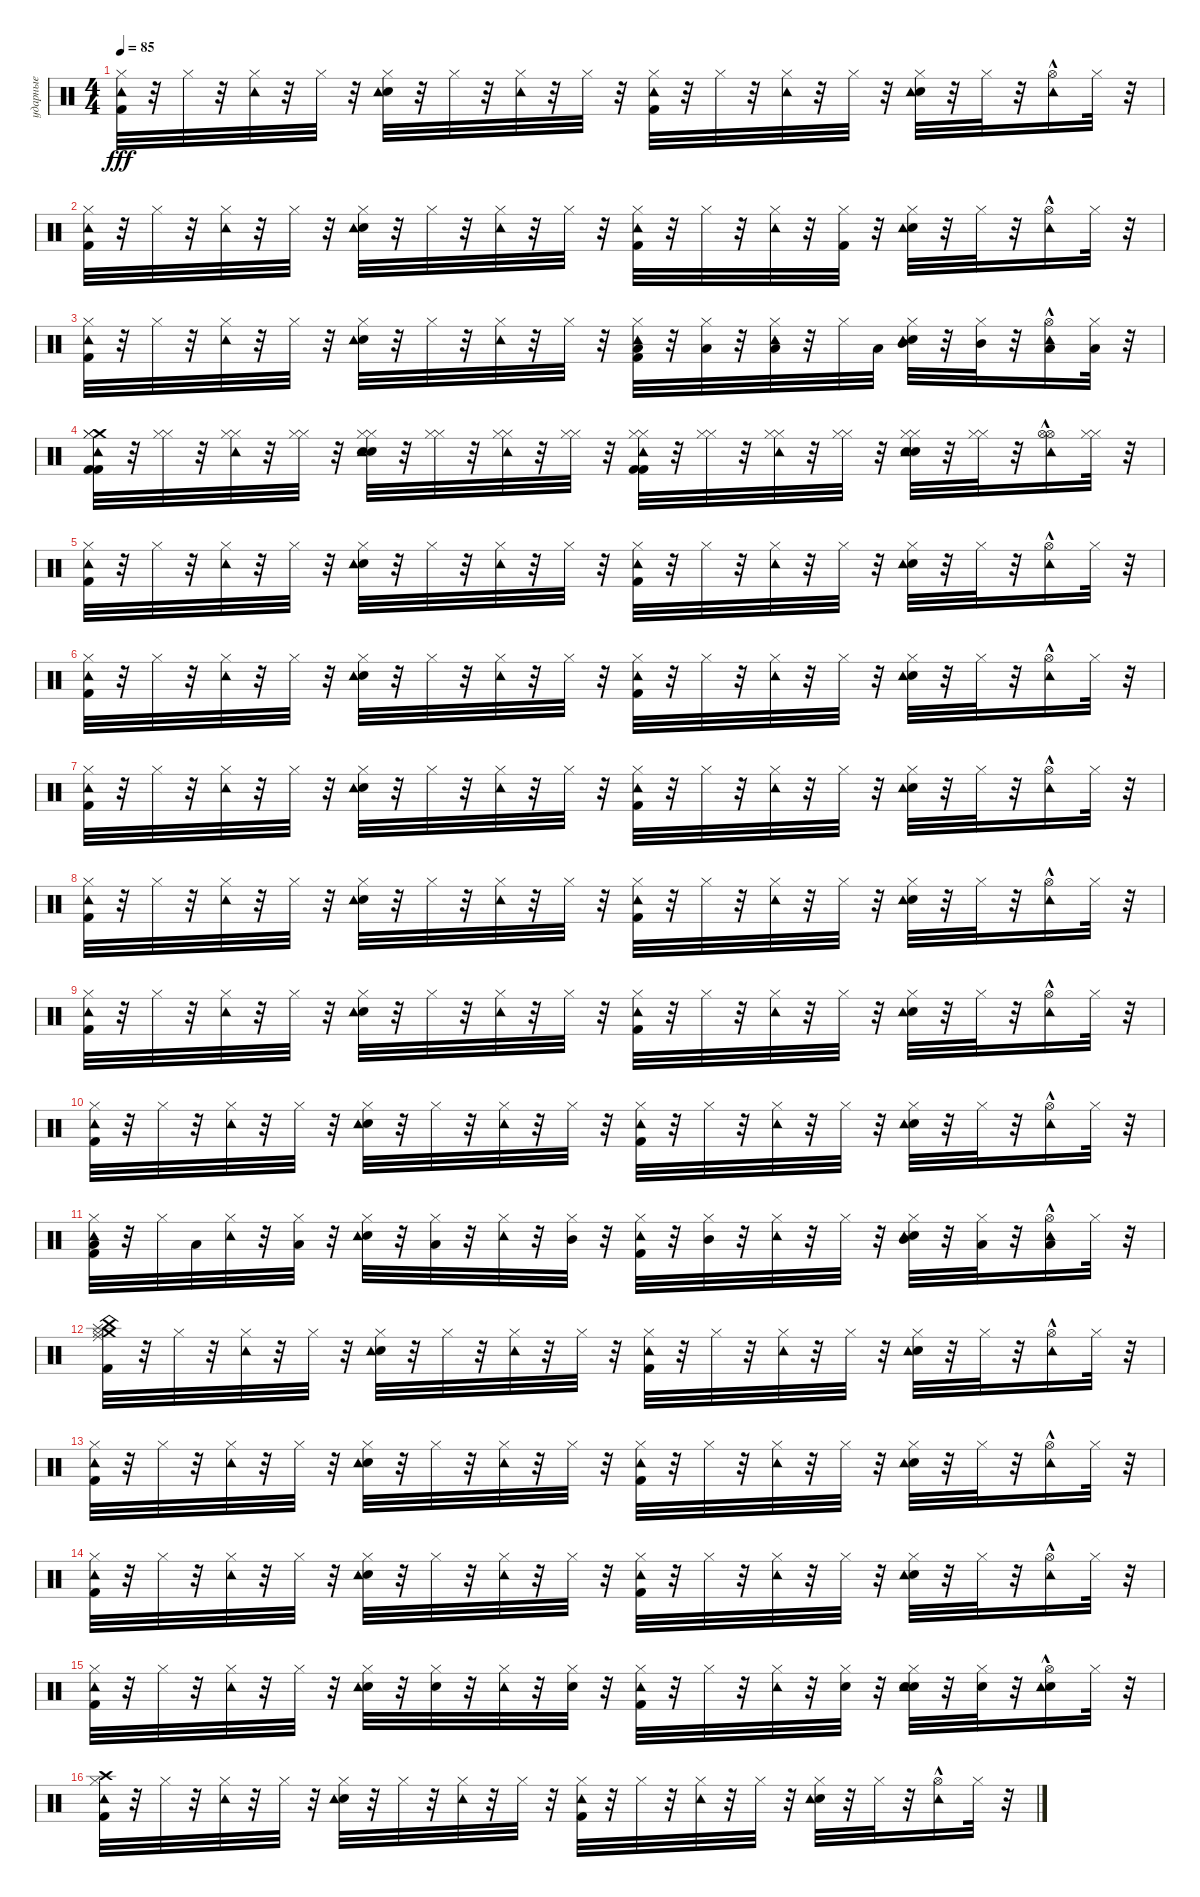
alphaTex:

\track ("ударные" "ударные") {instrument percussion}
\staff {score}
\articulation defaults
\ts (4 4)
\tempo 85
\clef neutral
\ks c
("Kick (hit) 2" "Hi-Hat (closed)" "Tambourine (hit)").32{dy fff} r.32 "Hi-Hat (closed)".32 r.32 ("Hi-Hat (closed)" "Tambourine (hit)").32 r.32 "Hi-Hat (closed)".32 r.32 ("Hi-Hat (closed)" "Electric Snare (hit)" "Tambourine (hit)").32 r.32 "Hi-Hat (closed)".32 r.32 ("Hi-Hat (closed)" "Tambourine (hit)").32 r.32 "Hi-Hat (closed)".32 r.32 ("Hi-Hat (closed)" "Kick (hit) 2" "Tambourine (hit)").32 r.32 "Hi-Hat (closed)".32 r.32 ("Hi-Hat (closed)" "Tambourine (hit)").32 r.32 "Hi-Hat (closed)".32 r.32 ("Hi-Hat (closed)" "Electric Snare (hit)" "Tambourine (hit)").32 r.32 "Hi-Hat (closed)".32 r.32 ("Hi-Hat (open)"{hac} "Tambourine (hit)").16 "Hi-Hat (closed)".32 r.32 |
("Kick (hit) 2" "Hi-Hat (closed)" "Tambourine (hit)").32 r.32 "Hi-Hat (closed)".32 r.32 ("Hi-Hat (closed)" "Tambourine (hit)").32 r.32 "Hi-Hat (closed)".32 r.32 ("Hi-Hat (closed)" "Electric Snare (hit)" "Tambourine (hit)").32 r.32 "Hi-Hat (closed)".32 r.32 ("Hi-Hat (closed)" "Tambourine (hit)").32 r.32 "Hi-Hat (closed)".32 r.32 ("Hi-Hat (closed)" "Kick (hit) 2" "Tambourine (hit)").32 r.32 "Hi-Hat (closed)".32 r.32 ("Hi-Hat (closed)" "Tambourine (hit)").32 r.32 ("Kick (hit) 2" "Hi-Hat (closed)").32 r.32 ("Hi-Hat (closed)" "Electric Snare (hit)" "Tambourine (hit)").32 r.32 "Hi-Hat (closed)".32 r.32 ("Hi-Hat (open)"{hac} "Tambourine (hit)").16 "Hi-Hat (closed)".32 r.32 |
("Kick (hit) 2" "Hi-Hat (closed)" "Tambourine (hit)").32 r.32 "Hi-Hat (closed)".32 r.32 ("Hi-Hat (closed)" "Tambourine (hit)").32 r.32 "Hi-Hat (closed)".32 r.32 ("Hi-Hat (closed)" "Electric Snare (hit)" "Tambourine (hit)").32 r.32 "Hi-Hat (closed)".32 r.32 ("Hi-Hat (closed)" "Tambourine (hit)").32 r.32 "Hi-Hat (closed)".32 r.32 ("Low Tom (hit)" "Hi-Hat (closed)" "Kick (hit) 2" "Tambourine (hit)").32 r.32 ("Low Tom (hit)" "Hi-Hat (closed)").32 r.32 ("Low Tom (hit)" "Hi-Hat (closed)" "Tambourine (hit)").32 r.32 "Hi-Hat (closed)".32 "Low Tom (hit)".32 ("Mid Tom (hit)" "Hi-Hat (closed)" "Electric Snare (hit)" "Tambourine (hit)").32 r.32 ("Mid Tom (hit)" "Hi-Hat (closed)").32 r.32 ("Low Tom (hit)" "Hi-Hat (open)"{hac} "Tambourine (hit)").16 ("Low Tom (hit)" "Hi-Hat (closed)").32 r.32 |
("Crash medium (hit)" "Kick (hit) 2" "Hi-Hat (closed)" "Kick (hit) 2" "Hi-Hat (closed)" "Tambourine (hit)").32 r.32 ("Hi-Hat (closed)" "Hi-Hat (closed)").32 r.32 ("Hi-Hat (closed)" "Hi-Hat (closed)" "Tambourine (hit)").32 r.32 ("Hi-Hat (closed)" "Hi-Hat (closed)").32 r.32 ("Hi-Hat (closed)" "Electric Snare (hit)" "Hi-Hat (closed)" "Electric Snare (hit)" "Tambourine (hit)").32 r.32 ("Hi-Hat (closed)" "Hi-Hat (closed)").32 r.32 ("Hi-Hat (closed)" "Hi-Hat (closed)" "Tambourine (hit)").32 r.32 ("Hi-Hat (closed)" "Hi-Hat (closed)").32 r.32 ("Hi-Hat (closed)" "Kick (hit) 2" "Hi-Hat (closed)" "Kick (hit) 2" "Tambourine (hit)").32 r.32 ("Hi-Hat (closed)" "Hi-Hat (closed)").32 r.32 ("Hi-Hat (closed)" "Hi-Hat (closed)" "Tambourine (hit)").32 r.32 ("Hi-Hat (closed)" "Hi-Hat (closed)").32 r.32 ("Hi-Hat (closed)" "Electric Snare (hit)" "Hi-Hat (closed)" "Electric Snare (hit)" "Tambourine (hit)").32 r.32 ("Hi-Hat (closed)" "Hi-Hat (closed)").32 r.32 ("Hi-Hat (open)"{hac} "Hi-Hat (open)"{hac} "Tambourine (hit)").16 ("Hi-Hat (closed)" "Hi-Hat (closed)").32 r.32 |
("Kick (hit) 2" "Hi-Hat (closed)" "Tambourine (hit)").32 r.32 "Hi-Hat (closed)".32 r.32 ("Hi-Hat (closed)" "Tambourine (hit)").32 r.32 "Hi-Hat (closed)".32 r.32 ("Hi-Hat (closed)" "Electric Snare (hit)" "Tambourine (hit)").32 r.32 "Hi-Hat (closed)".32 r.32 ("Hi-Hat (closed)" "Tambourine (hit)").32 r.32 "Hi-Hat (closed)".32 r.32 ("Hi-Hat (closed)" "Kick (hit) 2" "Tambourine (hit)").32 r.32 "Hi-Hat (closed)".32 r.32 ("Hi-Hat (closed)" "Tambourine (hit)").32 r.32 "Hi-Hat (closed)".32 r.32 ("Hi-Hat (closed)" "Electric Snare (hit)" "Tambourine (hit)").32 r.32 "Hi-Hat (closed)".32 r.32 ("Hi-Hat (open)"{hac} "Tambourine (hit)").16 "Hi-Hat (closed)".32 r.32 |
("Kick (hit) 2" "Hi-Hat (closed)" "Tambourine (hit)").32 r.32 "Hi-Hat (closed)".32 r.32 ("Hi-Hat (closed)" "Tambourine (hit)").32 r.32 "Hi-Hat (closed)".32 r.32 ("Hi-Hat (closed)" "Electric Snare (hit)" "Tambourine (hit)").32 r.32 "Hi-Hat (closed)".32 r.32 ("Hi-Hat (closed)" "Tambourine (hit)").32 r.32 "Hi-Hat (closed)".32 r.32 ("Hi-Hat (closed)" "Kick (hit) 2" "Tambourine (hit)").32 r.32 "Hi-Hat (closed)".32 r.32 ("Hi-Hat (closed)" "Tambourine (hit)").32 r.32 "Hi-Hat (closed)".32 r.32 ("Hi-Hat (closed)" "Electric Snare (hit)" "Tambourine (hit)").32 r.32 "Hi-Hat (closed)".32 r.32 ("Hi-Hat (open)"{hac} "Tambourine (hit)").16 "Hi-Hat (closed)".32 r.32 |
("Kick (hit) 2" "Hi-Hat (closed)" "Tambourine (hit)").32 r.32 "Hi-Hat (closed)".32 r.32 ("Hi-Hat (closed)" "Tambourine (hit)").32 r.32 "Hi-Hat (closed)".32 r.32 ("Hi-Hat (closed)" "Electric Snare (hit)" "Tambourine (hit)").32 r.32 "Hi-Hat (closed)".32 r.32 ("Hi-Hat (closed)" "Tambourine (hit)").32 r.32 "Hi-Hat (closed)".32 r.32 ("Hi-Hat (closed)" "Kick (hit) 2" "Tambourine (hit)").32 r.32 "Hi-Hat (closed)".32 r.32 ("Hi-Hat (closed)" "Tambourine (hit)").32 r.32 "Hi-Hat (closed)".32 r.32 ("Hi-Hat (closed)" "Electric Snare (hit)" "Tambourine (hit)").32 r.32 "Hi-Hat (closed)".32 r.32 ("Hi-Hat (open)"{hac} "Tambourine (hit)").16 "Hi-Hat (closed)".32 r.32 |
("Kick (hit) 2" "Hi-Hat (closed)" "Tambourine (hit)").32 r.32 "Hi-Hat (closed)".32 r.32 ("Hi-Hat (closed)" "Tambourine (hit)").32 r.32 "Hi-Hat (closed)".32 r.32 ("Hi-Hat (closed)" "Electric Snare (hit)" "Tambourine (hit)").32 r.32 "Hi-Hat (closed)".32 r.32 ("Hi-Hat (closed)" "Tambourine (hit)").32 r.32 "Hi-Hat (closed)".32 r.32 ("Hi-Hat (closed)" "Kick (hit) 2" "Tambourine (hit)").32 r.32 "Hi-Hat (closed)".32 r.32 ("Hi-Hat (closed)" "Tambourine (hit)").32 r.32 "Hi-Hat (closed)".32 r.32 ("Hi-Hat (closed)" "Electric Snare (hit)" "Tambourine (hit)").32 r.32 "Hi-Hat (closed)".32 r.32 ("Hi-Hat (open)"{hac} "Tambourine (hit)").16 "Hi-Hat (closed)".32 r.32 |
("Kick (hit) 2" "Hi-Hat (closed)" "Tambourine (hit)").32 r.32 "Hi-Hat (closed)".32 r.32 ("Hi-Hat (closed)" "Tambourine (hit)").32 r.32 "Hi-Hat (closed)".32 r.32 ("Hi-Hat (closed)" "Electric Snare (hit)" "Tambourine (hit)").32 r.32 "Hi-Hat (closed)".32 r.32 ("Hi-Hat (closed)" "Tambourine (hit)").32 r.32 "Hi-Hat (closed)".32 r.32 ("Hi-Hat (closed)" "Kick (hit) 2" "Tambourine (hit)").32 r.32 "Hi-Hat (closed)".32 r.32 ("Hi-Hat (closed)" "Tambourine (hit)").32 r.32 "Hi-Hat (closed)".32 r.32 ("Hi-Hat (closed)" "Electric Snare (hit)" "Tambourine (hit)").32 r.32 "Hi-Hat (closed)".32 r.32 ("Hi-Hat (open)"{hac} "Tambourine (hit)").16 "Hi-Hat (closed)".32 r.32 |
("Kick (hit) 2" "Hi-Hat (closed)" "Tambourine (hit)").32 r.32 "Hi-Hat (closed)".32 r.32 ("Hi-Hat (closed)" "Tambourine (hit)").32 r.32 "Hi-Hat (closed)".32 r.32 ("Hi-Hat (closed)" "Electric Snare (hit)" "Tambourine (hit)").32 r.32 "Hi-Hat (closed)".32 r.32 ("Hi-Hat (closed)" "Tambourine (hit)").32 r.32 "Hi-Hat (closed)".32 r.32 ("Hi-Hat (closed)" "Kick (hit) 2" "Tambourine (hit)").32 r.32 "Hi-Hat (closed)".32 r.32 ("Hi-Hat (closed)" "Tambourine (hit)").32 r.32 "Hi-Hat (closed)".32 r.32 ("Hi-Hat (closed)" "Electric Snare (hit)" "Tambourine (hit)").32 r.32 "Hi-Hat (closed)".32 r.32 ("Hi-Hat (open)"{hac} "Tambourine (hit)").16 "Hi-Hat (closed)".32 r.32 |
("Low Tom (hit)" "Kick (hit) 2" "Hi-Hat (closed)" "Tambourine (hit)").32 r.32 "Hi-Hat (closed)".32 "Low Tom (hit)".32 ("Hi-Hat (closed)" "Tambourine (hit)").32 r.32 ("Low Tom (hit)" "Hi-Hat (closed)").32 r.32 ("Hi-Hat (closed)" "Electric Snare (hit)" "Tambourine (hit)").32 r.32 ("Low Tom (hit)" "Hi-Hat (closed)").32 r.32 ("Hi-Hat (closed)" "Tambourine (hit)").32 r.32 ("Mid Tom (hit)" "Hi-Hat (closed)").32 r.32 ("Hi-Hat (closed)" "Kick (hit) 2" "Tambourine (hit)").32 r.32 ("Mid Tom (hit)" "Hi-Hat (closed)").32 r.32 ("Hi-Hat (closed)" "Tambourine (hit)").32 r.32 "Hi-Hat (closed)".32 r.32 ("Hi-Hat (closed)" "Electric Snare (hit)" "Tambourine (hit)" "Mid Tom (hit)").32 r.32 ("Low Tom (hit)" "Hi-Hat (closed)").32 r.32 ("Low Tom (hit)" "Hi-Hat (open)"{hac} "Tambourine (hit)").16 "Hi-Hat (closed)".32 r.32 |
("Crash medium (hit)" "Splash (hit)" "Ride (middle)" "China (hit)" "Kick (hit) 2" "Hi-Hat (closed)").32 r.32 "Hi-Hat (closed)".32 r.32 ("Hi-Hat (closed)" "Tambourine (hit)").32 r.32 "Hi-Hat (closed)".32 r.32 ("Hi-Hat (closed)" "Electric Snare (hit)" "Tambourine (hit)").32 r.32 "Hi-Hat (closed)".32 r.32 ("Hi-Hat (closed)" "Tambourine (hit)").32 r.32 "Hi-Hat (closed)".32 r.32 ("Hi-Hat (closed)" "Kick (hit) 2" "Tambourine (hit)").32 r.32 "Hi-Hat (closed)".32 r.32 ("Hi-Hat (closed)" "Tambourine (hit)").32 r.32 "Hi-Hat (closed)".32 r.32 ("Hi-Hat (closed)" "Electric Snare (hit)" "Tambourine (hit)").32 r.32 "Hi-Hat (closed)".32 r.32 ("Hi-Hat (open)"{hac} "Tambourine (hit)").16 "Hi-Hat (closed)".32 r.32 |
("Kick (hit) 2" "Hi-Hat (closed)" "Tambourine (hit)").32 r.32 "Hi-Hat (closed)".32 r.32 ("Hi-Hat (closed)" "Tambourine (hit)").32 r.32 "Hi-Hat (closed)".32 r.32 ("Hi-Hat (closed)" "Electric Snare (hit)" "Tambourine (hit)").32 r.32 "Hi-Hat (closed)".32 r.32 ("Hi-Hat (closed)" "Tambourine (hit)").32 r.32 "Hi-Hat (closed)".32 r.32 ("Hi-Hat (closed)" "Kick (hit) 2" "Tambourine (hit)").32 r.32 "Hi-Hat (closed)".32 r.32 ("Hi-Hat (closed)" "Tambourine (hit)").32 r.32 "Hi-Hat (closed)".32 r.32 ("Hi-Hat (closed)" "Electric Snare (hit)" "Tambourine (hit)").32 r.32 "Hi-Hat (closed)".32 r.32 ("Hi-Hat (open)"{hac} "Tambourine (hit)").16 "Hi-Hat (closed)".32 r.32 |
("Kick (hit) 2" "Hi-Hat (closed)" "Tambourine (hit)").32 r.32 "Hi-Hat (closed)".32 r.32 ("Hi-Hat (closed)" "Tambourine (hit)").32 r.32 "Hi-Hat (closed)".32 r.32 ("Hi-Hat (closed)" "Electric Snare (hit)" "Tambourine (hit)").32 r.32 "Hi-Hat (closed)".32 r.32 ("Hi-Hat (closed)" "Tambourine (hit)").32 r.32 "Hi-Hat (closed)".32 r.32 ("Hi-Hat (closed)" "Kick (hit) 2" "Tambourine (hit)").32 r.32 "Hi-Hat (closed)".32 r.32 ("Hi-Hat (closed)" "Tambourine (hit)").32 r.32 "Hi-Hat (closed)".32 r.32 ("Hi-Hat (closed)" "Electric Snare (hit)" "Tambourine (hit)").32 r.32 "Hi-Hat (closed)".32 r.32 ("Hi-Hat (open)"{hac} "Tambourine (hit)").16 "Hi-Hat (closed)".32 r.32 |
("Kick (hit) 2" "Hi-Hat (closed)" "Tambourine (hit)").32 r.32 "Hi-Hat (closed)".32 r.32 ("Hi-Hat (closed)" "Tambourine (hit)").32 r.32 "Hi-Hat (closed)".32 r.32 ("Hi-Hat (closed)" "Electric Snare (hit)" "Tambourine (hit)").32 r.32 ("Hi-Hat (closed)" "Metronome (bell)").32 r.32 ("Hi-Hat (closed)" "Tambourine (hit)").32 r.32 ("Hi-Hat (closed)" "Metronome (bell)").32 r.32 ("Hi-Hat (closed)" "Kick (hit) 2" "Tambourine (hit)").32 r.32 "Hi-Hat (closed)".32 r.32 ("Hi-Hat (closed)" "Tambourine (hit)").32 r.32 ("Hi-Hat (closed)" "Metronome (bell)").32 r.32 ("Metronome (bell)" "Hi-Hat (closed)" "Electric Snare (hit)" "Tambourine (hit)").32 r.32 ("Metronome (bell)" "Hi-Hat (closed)").32 r.32 ("Metronome (bell)" "Hi-Hat (open)"{hac} "Tambourine (hit)").16 "Hi-Hat (closed)".32 r.32 |
("Crash high (hit)" "Kick (hit) 2" "Hi-Hat (closed)" "Tambourine (hit)").32 r.32 "Hi-Hat (closed)".32 r.32 ("Hi-Hat (closed)" "Tambourine (hit)").32 r.32 "Hi-Hat (closed)".32 r.32 ("Hi-Hat (closed)" "Electric Snare (hit)" "Tambourine (hit)").32 r.32 "Hi-Hat (closed)".32 r.32 ("Hi-Hat (closed)" "Tambourine (hit)").32 r.32 "Hi-Hat (closed)".32 r.32 ("Hi-Hat (closed)" "Kick (hit) 2" "Tambourine (hit)").32 r.32 "Hi-Hat (closed)".32 r.32 ("Hi-Hat (closed)" "Tambourine (hit)").32 r.32 "Hi-Hat (closed)".32 r.32 ("Hi-Hat (closed)" "Electric Snare (hit)" "Tambourine (hit)").32 r.32 "Hi-Hat (closed)".32 r.32 ("Hi-Hat (open)"{hac} "Tambourine (hit)").16 "Hi-Hat (closed)".32 r.32
